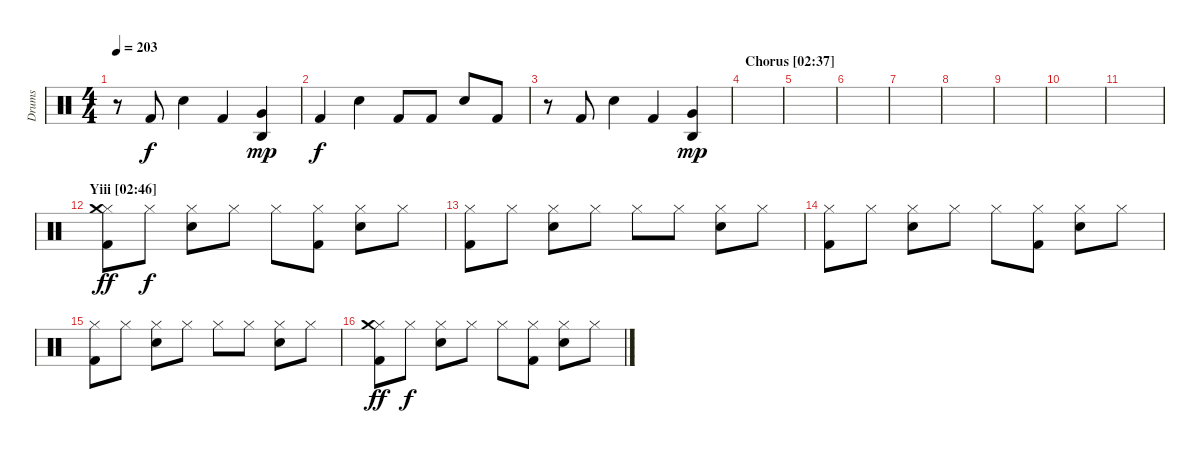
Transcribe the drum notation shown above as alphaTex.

\track ("Drums" "Drums") {instrument percussion}
\staff {score}
\articulation defaults
\ts (4 4)
\tempo 203
\clef neutral
\ks c
r.8{dy f} "Kick (hit) 2".8 "Electric Snare (hit)".4 "Kick (hit) 2".4 ("Agogo high (hit)" "Very Low Tom (hit)").4{dy mp} |
"Kick (hit) 2".4{dy f} "Electric Snare (hit)".4 "Kick (hit) 2".8 "Kick (hit) 2".8 "Electric Snare (hit)".8 "Kick (hit) 2".8 |
r.8 "Kick (hit) 2".8 "Electric Snare (hit)".4 "Kick (hit) 2".4 ("Agogo high (hit)" "Very Low Tom (hit)").4{dy mp} |
\section ("" "Chorus [02:37]")
|
|
|
|
|
|
|
|
\section ("" "Yiii [02:46]")
("Hi-Hat (closed)" "Crash medium (hit)" "Kick (hit) 2").8{dy ff} "Hi-Hat (closed)".8{dy f} ("Hi-Hat (closed)" "Electric Snare (hit)").8 "Hi-Hat (closed)".8 "Hi-Hat (closed)".8 ("Hi-Hat (closed)" "Kick (hit) 2").8 ("Hi-Hat (closed)" "Electric Snare (hit)").8 "Hi-Hat (closed)".8 |
("Hi-Hat (closed)" "Kick (hit) 2").8 "Hi-Hat (closed)".8 ("Hi-Hat (closed)" "Electric Snare (hit)").8 "Hi-Hat (closed)".8 "Hi-Hat (closed)".8 "Hi-Hat (closed)".8 ("Hi-Hat (closed)" "Electric Snare (hit)").8 "Hi-Hat (closed)".8 |
("Hi-Hat (closed)" "Kick (hit) 2").8 "Hi-Hat (closed)".8 ("Hi-Hat (closed)" "Electric Snare (hit)").8 "Hi-Hat (closed)".8 "Hi-Hat (closed)".8 ("Hi-Hat (closed)" "Kick (hit) 2").8 ("Hi-Hat (closed)" "Electric Snare (hit)").8 "Hi-Hat (closed)".8 |
("Hi-Hat (closed)" "Kick (hit) 2").8 "Hi-Hat (closed)".8 ("Hi-Hat (closed)" "Electric Snare (hit)").8 "Hi-Hat (closed)".8 "Hi-Hat (closed)".8 "Hi-Hat (closed)".8 ("Hi-Hat (closed)" "Electric Snare (hit)").8 "Hi-Hat (closed)".8 |
("Hi-Hat (closed)" "Crash medium (hit)" "Kick (hit) 2").8{dy ff} "Hi-Hat (closed)".8{dy f} ("Hi-Hat (closed)" "Electric Snare (hit)").8 "Hi-Hat (closed)".8 "Hi-Hat (closed)".8 ("Hi-Hat (closed)" "Kick (hit) 2").8 ("Hi-Hat (closed)" "Electric Snare (hit)").8 "Hi-Hat (closed)".8
